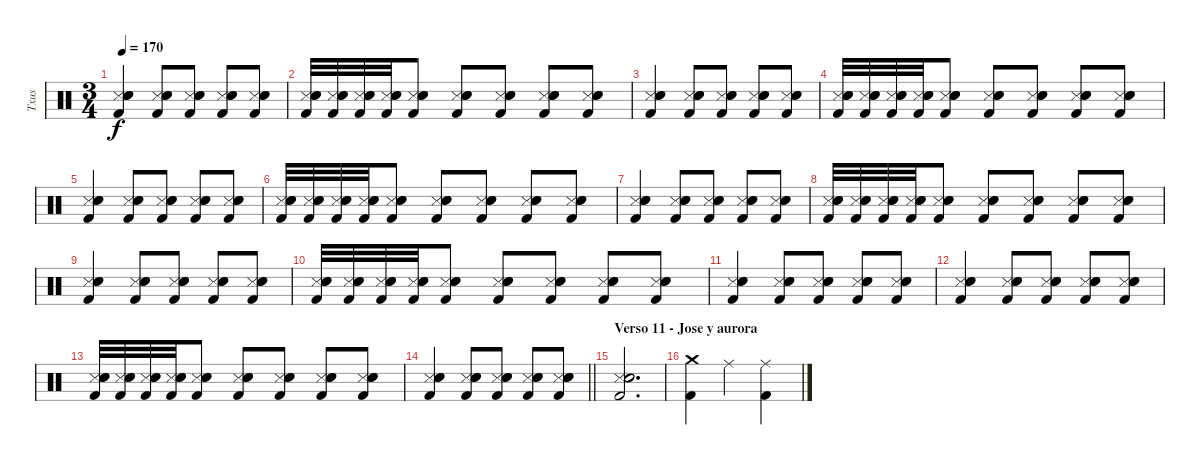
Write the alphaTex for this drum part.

\track ("Txus" "Txus") {instrument percussion}
\staff {score}
\articulation defaults
\ts (3 4)
\tempo 170
\clef neutral
\ks c
("Metronome (hit)" "Snare (hit) 2" "Hand Clap (hit)" "Kick (hit) 2").4{dy f} ("Metronome (hit)" "Snare (hit) 2" "Hand Clap (hit)" "Kick (hit) 2").8 ("Metronome (hit)" "Snare (hit) 2" "Hand Clap (hit)" "Kick (hit) 2").8 ("Metronome (hit)" "Snare (hit) 2" "Hand Clap (hit)" "Kick (hit) 2").8 ("Metronome (hit)" "Snare (hit) 2" "Hand Clap (hit)" "Kick (hit) 2").8 |
("Metronome (hit)" "Snare (hit) 2" "Hand Clap (hit)" "Kick (hit) 2").32 ("Metronome (hit)" "Snare (hit) 2" "Hand Clap (hit)" "Kick (hit) 2").32 ("Metronome (hit)" "Snare (hit) 2" "Hand Clap (hit)" "Kick (hit) 2").32 ("Metronome (hit)" "Snare (hit) 2" "Hand Clap (hit)" "Kick (hit) 2").32 ("Metronome (hit)" "Snare (hit) 2" "Hand Clap (hit)" "Kick (hit) 2").8 ("Metronome (hit)" "Snare (hit) 2" "Hand Clap (hit)" "Kick (hit) 2").8 ("Metronome (hit)" "Snare (hit) 2" "Hand Clap (hit)" "Kick (hit) 2").8 ("Metronome (hit)" "Snare (hit) 2" "Hand Clap (hit)" "Kick (hit) 2").8 ("Metronome (hit)" "Snare (hit) 2" "Hand Clap (hit)" "Kick (hit) 2").8 |
("Metronome (hit)" "Snare (hit) 2" "Hand Clap (hit)" "Kick (hit) 2").4 ("Metronome (hit)" "Snare (hit) 2" "Hand Clap (hit)" "Kick (hit) 2").8 ("Metronome (hit)" "Snare (hit) 2" "Hand Clap (hit)" "Kick (hit) 2").8 ("Metronome (hit)" "Snare (hit) 2" "Hand Clap (hit)" "Kick (hit) 2").8 ("Metronome (hit)" "Snare (hit) 2" "Hand Clap (hit)" "Kick (hit) 2").8 |
("Metronome (hit)" "Snare (hit) 2" "Hand Clap (hit)" "Kick (hit) 2").32 ("Metronome (hit)" "Snare (hit) 2" "Hand Clap (hit)" "Kick (hit) 2").32 ("Metronome (hit)" "Snare (hit) 2" "Hand Clap (hit)" "Kick (hit) 2").32 ("Metronome (hit)" "Snare (hit) 2" "Hand Clap (hit)" "Kick (hit) 2").32 ("Metronome (hit)" "Snare (hit) 2" "Hand Clap (hit)" "Kick (hit) 2").8 ("Metronome (hit)" "Snare (hit) 2" "Hand Clap (hit)" "Kick (hit) 2").8 ("Metronome (hit)" "Snare (hit) 2" "Hand Clap (hit)" "Kick (hit) 2").8 ("Metronome (hit)" "Snare (hit) 2" "Hand Clap (hit)" "Kick (hit) 2").8 ("Metronome (hit)" "Snare (hit) 2" "Hand Clap (hit)" "Kick (hit) 2").8 |
("Metronome (hit)" "Snare (hit) 2" "Hand Clap (hit)" "Kick (hit) 2").4 ("Metronome (hit)" "Snare (hit) 2" "Hand Clap (hit)" "Kick (hit) 2").8 ("Metronome (hit)" "Snare (hit) 2" "Hand Clap (hit)" "Kick (hit) 2").8 ("Metronome (hit)" "Snare (hit) 2" "Hand Clap (hit)" "Kick (hit) 2").8 ("Metronome (hit)" "Snare (hit) 2" "Hand Clap (hit)" "Kick (hit) 2").8 |
("Metronome (hit)" "Snare (hit) 2" "Hand Clap (hit)" "Kick (hit) 2").32 ("Metronome (hit)" "Snare (hit) 2" "Hand Clap (hit)" "Kick (hit) 2").32 ("Metronome (hit)" "Snare (hit) 2" "Hand Clap (hit)" "Kick (hit) 2").32 ("Metronome (hit)" "Snare (hit) 2" "Hand Clap (hit)" "Kick (hit) 2").32 ("Metronome (hit)" "Snare (hit) 2" "Hand Clap (hit)" "Kick (hit) 2").8 ("Metronome (hit)" "Snare (hit) 2" "Hand Clap (hit)" "Kick (hit) 2").8 ("Metronome (hit)" "Snare (hit) 2" "Hand Clap (hit)" "Kick (hit) 2").8 ("Metronome (hit)" "Snare (hit) 2" "Hand Clap (hit)" "Kick (hit) 2").8 ("Metronome (hit)" "Snare (hit) 2" "Hand Clap (hit)" "Kick (hit) 2").8 |
("Metronome (hit)" "Snare (hit) 2" "Hand Clap (hit)" "Kick (hit) 2").4 ("Metronome (hit)" "Snare (hit) 2" "Hand Clap (hit)" "Kick (hit) 2").8 ("Metronome (hit)" "Snare (hit) 2" "Hand Clap (hit)" "Kick (hit) 2").8 ("Metronome (hit)" "Snare (hit) 2" "Hand Clap (hit)" "Kick (hit) 2").8 ("Metronome (hit)" "Snare (hit) 2" "Hand Clap (hit)" "Kick (hit) 2").8 |
("Metronome (hit)" "Snare (hit) 2" "Hand Clap (hit)" "Kick (hit) 2").32 ("Metronome (hit)" "Snare (hit) 2" "Hand Clap (hit)" "Kick (hit) 2").32 ("Metronome (hit)" "Snare (hit) 2" "Hand Clap (hit)" "Kick (hit) 2").32 ("Metronome (hit)" "Snare (hit) 2" "Hand Clap (hit)" "Kick (hit) 2").32 ("Metronome (hit)" "Snare (hit) 2" "Hand Clap (hit)" "Kick (hit) 2").8 ("Metronome (hit)" "Snare (hit) 2" "Hand Clap (hit)" "Kick (hit) 2").8 ("Metronome (hit)" "Snare (hit) 2" "Hand Clap (hit)" "Kick (hit) 2").8 ("Metronome (hit)" "Snare (hit) 2" "Hand Clap (hit)" "Kick (hit) 2").8 ("Metronome (hit)" "Snare (hit) 2" "Hand Clap (hit)" "Kick (hit) 2").8 |
("Metronome (hit)" "Snare (hit) 2" "Hand Clap (hit)" "Kick (hit) 2").4 ("Metronome (hit)" "Snare (hit) 2" "Hand Clap (hit)" "Kick (hit) 2").8 ("Metronome (hit)" "Snare (hit) 2" "Hand Clap (hit)" "Kick (hit) 2").8 ("Metronome (hit)" "Snare (hit) 2" "Hand Clap (hit)" "Kick (hit) 2").8 ("Metronome (hit)" "Snare (hit) 2" "Hand Clap (hit)" "Kick (hit) 2").8 |
("Metronome (hit)" "Snare (hit) 2" "Hand Clap (hit)" "Kick (hit) 2").32 ("Metronome (hit)" "Snare (hit) 2" "Hand Clap (hit)" "Kick (hit) 2").32 ("Metronome (hit)" "Snare (hit) 2" "Hand Clap (hit)" "Kick (hit) 2").32 ("Metronome (hit)" "Snare (hit) 2" "Hand Clap (hit)" "Kick (hit) 2").32 ("Metronome (hit)" "Snare (hit) 2" "Hand Clap (hit)" "Kick (hit) 2").8 ("Metronome (hit)" "Snare (hit) 2" "Hand Clap (hit)" "Kick (hit) 2").8 ("Metronome (hit)" "Snare (hit) 2" "Hand Clap (hit)" "Kick (hit) 2").8 ("Metronome (hit)" "Snare (hit) 2" "Hand Clap (hit)" "Kick (hit) 2").8 ("Metronome (hit)" "Snare (hit) 2" "Hand Clap (hit)" "Kick (hit) 2").8 |
("Metronome (hit)" "Snare (hit) 2" "Hand Clap (hit)" "Kick (hit) 2").4 ("Metronome (hit)" "Snare (hit) 2" "Hand Clap (hit)" "Kick (hit) 2").8 ("Metronome (hit)" "Snare (hit) 2" "Hand Clap (hit)" "Kick (hit) 2").8 ("Metronome (hit)" "Snare (hit) 2" "Hand Clap (hit)" "Kick (hit) 2").8 ("Metronome (hit)" "Snare (hit) 2" "Hand Clap (hit)" "Kick (hit) 2").8 |
("Metronome (hit)" "Snare (hit) 2" "Hand Clap (hit)" "Kick (hit) 2").4 ("Metronome (hit)" "Snare (hit) 2" "Hand Clap (hit)" "Kick (hit) 2").8 ("Metronome (hit)" "Snare (hit) 2" "Hand Clap (hit)" "Kick (hit) 2").8 ("Metronome (hit)" "Snare (hit) 2" "Hand Clap (hit)" "Kick (hit) 2").8 ("Metronome (hit)" "Snare (hit) 2" "Hand Clap (hit)" "Kick (hit) 2").8 |
("Metronome (hit)" "Snare (hit) 2" "Hand Clap (hit)" "Kick (hit) 2").32 ("Metronome (hit)" "Snare (hit) 2" "Hand Clap (hit)" "Kick (hit) 2").32 ("Metronome (hit)" "Snare (hit) 2" "Hand Clap (hit)" "Kick (hit) 2").32 ("Metronome (hit)" "Snare (hit) 2" "Hand Clap (hit)" "Kick (hit) 2").32 ("Metronome (hit)" "Snare (hit) 2" "Hand Clap (hit)" "Kick (hit) 2").8 ("Metronome (hit)" "Snare (hit) 2" "Hand Clap (hit)" "Kick (hit) 2").8 ("Metronome (hit)" "Snare (hit) 2" "Hand Clap (hit)" "Kick (hit) 2").8 ("Metronome (hit)" "Snare (hit) 2" "Hand Clap (hit)" "Kick (hit) 2").8 ("Metronome (hit)" "Snare (hit) 2" "Hand Clap (hit)" "Kick (hit) 2").8 |
\barLineRight lightlight
("Metronome (hit)" "Snare (hit) 2" "Hand Clap (hit)" "Kick (hit) 2").4 ("Metronome (hit)" "Snare (hit) 2" "Hand Clap (hit)" "Kick (hit) 2").8 ("Metronome (hit)" "Snare (hit) 2" "Hand Clap (hit)" "Kick (hit) 2").8 ("Metronome (hit)" "Snare (hit) 2" "Hand Clap (hit)" "Kick (hit) 2").8 ("Metronome (hit)" "Snare (hit) 2" "Hand Clap (hit)" "Kick (hit) 2").8 |
\section ("" "Verso 11 - Jose y aurora")
("Metronome (hit)" "Snare (hit) 2" "Hand Clap (hit)" "Kick (hit) 2").2{d} |
("Crash medium (hit)" "Kick (hit) 2").4{volume 16} "Ride (middle)".4 ("Ride (middle)" "Kick (hit) 2").4
